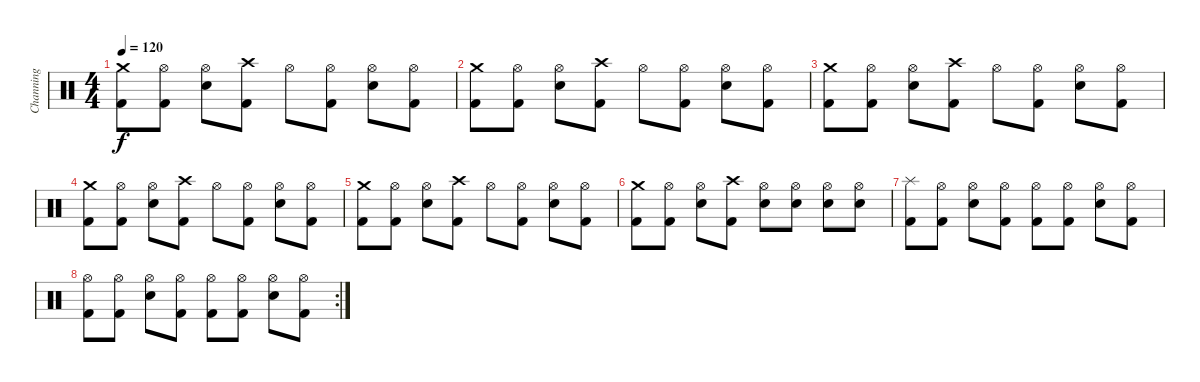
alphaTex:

\track ("Channing" "Channing") {instrument percussion}
\staff {score}
\articulation defaults
\ts (4 4)
\tempo 120
\clef neutral
\ks c
("Crash medium (hit)" "Kick (hit) 2").8{dy f} ("Hi-Hat (open)" "Kick (hit) 2").8 ("Hi-Hat (open)" "Snare (hit) 2").8 ("Crash high (hit)" "Kick (hit) 2").8 "Hi-Hat (open)".8 ("Hi-Hat (open)" "Kick (hit) 2").8 ("Hi-Hat (open)" "Snare (hit) 2").8 ("Hi-Hat (open)" "Kick (hit) 2").8 |
("Crash medium (hit)" "Kick (hit) 2").8 ("Hi-Hat (open)" "Kick (hit) 2").8 ("Hi-Hat (open)" "Snare (hit) 2").8 ("Crash high (hit)" "Kick (hit) 2").8 "Hi-Hat (open)".8 ("Hi-Hat (open)" "Kick (hit) 2").8 ("Hi-Hat (open)" "Snare (hit) 2").8 ("Hi-Hat (open)" "Kick (hit) 2").8 |
("Crash medium (hit)" "Kick (hit) 2").8 ("Hi-Hat (open)" "Kick (hit) 2").8 ("Hi-Hat (open)" "Snare (hit) 2").8 ("Crash high (hit)" "Kick (hit) 2").8 "Hi-Hat (open)".8 ("Hi-Hat (open)" "Kick (hit) 2").8 ("Hi-Hat (open)" "Snare (hit) 2").8 ("Hi-Hat (open)" "Kick (hit) 2").8 |
("Crash medium (hit)" "Kick (hit) 2").8 ("Hi-Hat (open)" "Kick (hit) 2").8 ("Hi-Hat (open)" "Snare (hit) 2").8 ("Crash high (hit)" "Kick (hit) 2").8 "Hi-Hat (open)".8 ("Hi-Hat (open)" "Kick (hit) 2").8 ("Hi-Hat (open)" "Snare (hit) 2").8 ("Hi-Hat (open)" "Kick (hit) 2").8 |
("Crash medium (hit)" "Kick (hit) 2").8 ("Hi-Hat (open)" "Kick (hit) 2").8 ("Hi-Hat (open)" "Snare (hit) 2").8 ("Crash high (hit)" "Kick (hit) 2").8 "Hi-Hat (open)".8 ("Hi-Hat (open)" "Kick (hit) 2").8 ("Hi-Hat (open)" "Snare (hit) 2").8 ("Hi-Hat (open)" "Kick (hit) 2").8 |
("Crash medium (hit)" "Kick (hit) 2").8 ("Hi-Hat (open)" "Kick (hit) 2").8 ("Hi-Hat (open)" "Snare (hit) 2").8 ("Crash high (hit)" "Kick (hit) 2").8 ("Hi-Hat (open)" "Snare (hit) 2").8 ("Hi-Hat (open)" "Snare (hit) 2").8 ("Hi-Hat (open)" "Snare (hit) 2").8 ("Hi-Hat (open)" "Snare (hit) 2").8 |
("Splash (hit)" "Kick (hit) 2").8 ("Hi-Hat (open)" "Kick (hit) 2").8 ("Hi-Hat (open)" "Snare (hit) 2").8 ("Hi-Hat (open)" "Kick (hit) 2").8 ("Hi-Hat (open)" "Kick (hit) 2").8 ("Hi-Hat (open)" "Kick (hit) 2").8 ("Hi-Hat (open)" "Snare (hit) 2").8 ("Hi-Hat (open)" "Kick (hit) 2").8 |
\rc 2
("Hi-Hat (open)" "Kick (hit) 2").8 ("Hi-Hat (open)" "Kick (hit) 2").8 ("Hi-Hat (open)" "Snare (hit) 2").8 ("Hi-Hat (open)" "Kick (hit) 2").8 ("Hi-Hat (open)" "Kick (hit) 2").8 ("Hi-Hat (open)" "Kick (hit) 2").8 ("Hi-Hat (open)" "Snare (hit) 2").8 ("Hi-Hat (open)" "Kick (hit) 2").8
